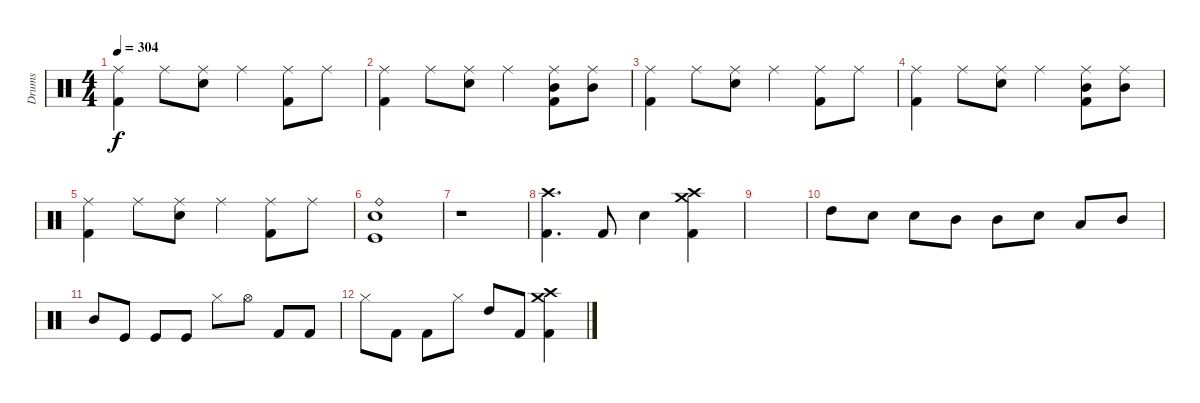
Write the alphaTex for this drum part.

\track ("Drums" "Drums") {instrument percussion}
\staff {score}
\articulation defaults
\ts (4 4)
\tempo 304
\clef neutral
\ks c
("Ride (middle)" "Kick (hit) 2").4{dy f} "Ride (middle)".8 ("Ride (middle)" "Snare (hit) 2").8 "Ride (middle)".4 ("Ride (middle)" "Kick (hit) 2").8 "Ride (middle)".8 |
("Ride (middle)" "Kick (hit) 2").4 "Ride (middle)".8 ("Ride (middle)" "Snare (hit) 2").8 "Ride (middle)".4 ("Ride (middle)" "Mid Tom (hit)" "Kick (hit) 2").8 ("Ride (middle)" "Mid Tom (hit)").8 |
("Ride (middle)" "Kick (hit) 2").4 "Ride (middle)".8 ("Ride (middle)" "Snare (hit) 2").8 "Ride (middle)".4 ("Ride (middle)" "Kick (hit) 2").8 "Ride (middle)".8 |
("Ride (middle)" "Kick (hit) 2").4 "Ride (middle)".8 ("Ride (middle)" "Snare (hit) 2").8 "Ride (middle)".4 ("Ride (middle)" "Mid Tom (hit)" "Kick (hit) 2").8 ("Ride (middle)" "Mid Tom (hit)").8 |
("Ride (middle)" "Kick (hit) 2").4 "Ride (middle)".8 ("Ride (middle)" "Snare (hit) 2").8 "Ride (middle)".4 ("Ride (middle)" "Kick (hit) 2").8 "Ride (middle)".8 |
("Ride (bell)" "Snare (hit) 2" "Kick (hit)").1 |
r.1 |
("Crash high (hit)" "Kick (hit) 2").4{d} "Kick (hit) 2".8 "Snare (hit) 2".4 ("Crash medium (hit)" "Crash high (hit)" "Kick (hit) 2").4 |
|
"High Tom (hit)".8 "Snare (hit) 2".8 "Snare (hit) 2".8 "Mid Tom (hit)".8 "Mid Tom (hit)".8 "Snare (hit) 2".8 "Low Tom (hit)".8 "Mid Tom (hit)".8 |
"Mid Tom (hit)".8 "Kick (hit)".8 "Kick (hit)".8 "Kick (hit)".8 "Hi-Hat (closed)".8 "Hi-Hat (open)".8 "Kick (hit) 2".8 "Kick (hit) 2".8 |
"Hi-Hat (closed)".8 "Kick (hit) 2".8 "Kick (hit) 2".8 "Hi-Hat (closed)".8 "High Tom (hit)".8 "Kick (hit) 2".8 ("Crash medium (hit)" "Crash high (hit)" "Kick (hit) 2").4
